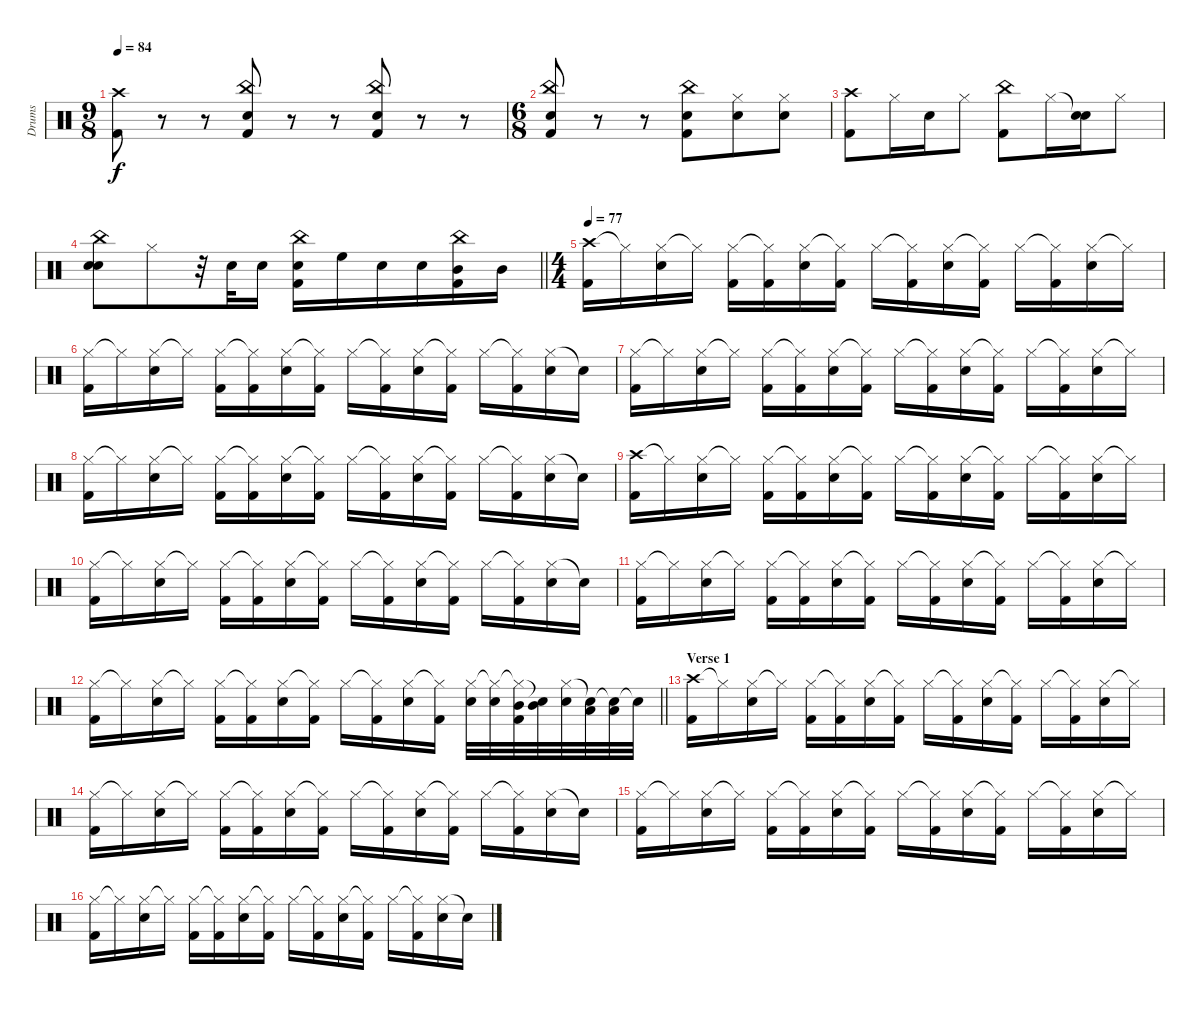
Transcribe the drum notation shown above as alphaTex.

\track ("Drums" "Drums") {instrument percussion}
\staff {score}
\articulation defaults
\ts (9 8)
\tempo 84
\clef neutral
\ks c
("Crash high (hit)" "Kick (hit) 2").8{dy f} r.8 r.8 ("China (hit)" "Electric Snare (hit)" "Kick (hit) 2").8 r.8 r.8 ("China (hit)" "Electric Snare (hit)" "Kick (hit) 2").8 r.8 r.8 |
\ts (6 8)
("China (hit)" "Electric Snare (hit)" "Kick (hit) 2").8 r.8 r.8 ("China (hit)" "Electric Snare (hit)" "Kick (hit) 2").8 ("Hi-Hat (closed)" "Electric Snare (hit)").8 ("Hi-Hat (closed)" "Electric Snare (hit)").8 |
("Crash high (hit)" "Kick (hit) 2").8 "Hi-Hat (closed)".16 "Electric Snare (hit)".16 "Hi-Hat (closed)".8 ("China (hit)" "Kick (hit) 2").8 "Hi-Hat (closed)".16 ("Snare (hit)"{t} "Electric Snare (hit)").16 "Hi-Hat (closed)".8 |
\barLineRight lightlight
("China (hit)" "Electric Snare (hit)" "Snare (hit)").8 "Hi-Hat (closed)".8 r.32 "Electric Snare (hit)".32 "Electric Snare (hit)".16 ("China (hit)" "Electric Snare (hit)" "Kick (hit) 2").16 "High Floor Tom (hit)".16 "Electric Snare (hit)".16 "Electric Snare (hit)".16 ("China (hit)" "Mid Tom (hit)" "Kick (hit) 2").16 "Mid Tom (hit)".16 |
\ts (4 4)
\tempo 77
("Crash high (hit)" "Kick (hit) 2").16 "Hi-Hat (closed)"{t}.16 ("Hi-Hat (closed)" "Electric Snare (hit)").16 "Hi-Hat (closed)"{t}.16 ("Hi-Hat (closed)" "Kick (hit) 2").16 ("Hi-Hat (closed)"{t} "Kick (hit) 2").16 ("Hi-Hat (closed)" "Electric Snare (hit)").16 ("Hi-Hat (closed)"{t} "Kick (hit) 2").16 "Hi-Hat (closed)".16 ("Hi-Hat (closed)"{t} "Kick (hit) 2").16 ("Hi-Hat (closed)" "Electric Snare (hit)").16 ("Hi-Hat (closed)"{t} "Kick (hit) 2").16 "Hi-Hat (closed)".16 ("Hi-Hat (closed)"{t} "Kick (hit) 2").16 ("Hi-Hat (closed)" "Electric Snare (hit)").16 "Hi-Hat (closed)"{t}.16 |
("Hi-Hat (closed)" "Kick (hit) 2").16 "Hi-Hat (closed)"{t}.16 ("Hi-Hat (closed)" "Electric Snare (hit)").16 "Hi-Hat (closed)"{t}.16 ("Hi-Hat (closed)" "Kick (hit) 2").16 ("Hi-Hat (closed)"{t} "Kick (hit) 2").16 ("Hi-Hat (closed)" "Electric Snare (hit)").16 ("Hi-Hat (closed)"{t} "Kick (hit) 2").16 "Hi-Hat (closed)".16 ("Hi-Hat (closed)"{t} "Kick (hit) 2").16 ("Hi-Hat (closed)" "Electric Snare (hit)").16 ("Hi-Hat (closed)"{t} "Kick (hit) 2").16 "Hi-Hat (closed)".16 ("Hi-Hat (closed)"{t} "Kick (hit) 2").16 ("Hi-Hat (closed)" "Electric Snare (hit)").16 "Snare (hit)"{t}.16 |
("Hi-Hat (closed)" "Kick (hit) 2").16 "Hi-Hat (closed)"{t}.16 ("Hi-Hat (closed)" "Electric Snare (hit)").16 "Hi-Hat (closed)"{t}.16 ("Hi-Hat (closed)" "Kick (hit) 2").16 ("Hi-Hat (closed)"{t} "Kick (hit) 2").16 ("Hi-Hat (closed)" "Electric Snare (hit)").16 ("Hi-Hat (closed)"{t} "Kick (hit) 2").16 "Hi-Hat (closed)".16 ("Hi-Hat (closed)"{t} "Kick (hit) 2").16 ("Hi-Hat (closed)" "Electric Snare (hit)").16 ("Hi-Hat (closed)"{t} "Kick (hit) 2").16 "Hi-Hat (closed)".16 ("Hi-Hat (closed)"{t} "Kick (hit) 2").16 ("Hi-Hat (closed)" "Electric Snare (hit)").16 "Hi-Hat (closed)"{t}.16 |
("Hi-Hat (closed)" "Kick (hit) 2").16 "Hi-Hat (closed)"{t}.16 ("Hi-Hat (closed)" "Electric Snare (hit)").16 "Hi-Hat (closed)"{t}.16 ("Hi-Hat (closed)" "Kick (hit) 2").16 ("Hi-Hat (closed)"{t} "Kick (hit) 2").16 ("Hi-Hat (closed)" "Electric Snare (hit)").16 ("Hi-Hat (closed)"{t} "Kick (hit) 2").16 "Hi-Hat (closed)".16 ("Hi-Hat (closed)"{t} "Kick (hit) 2").16 ("Hi-Hat (closed)" "Electric Snare (hit)").16 ("Hi-Hat (closed)"{t} "Kick (hit) 2").16 "Hi-Hat (closed)".16 ("Hi-Hat (closed)"{t} "Kick (hit) 2").16 ("Hi-Hat (closed)" "Electric Snare (hit)").16 "Snare (hit)"{t}.16 |
("Crash high (hit)" "Kick (hit) 2").16 "Hi-Hat (closed)"{t}.16 ("Hi-Hat (closed)" "Electric Snare (hit)").16 "Hi-Hat (closed)"{t}.16 ("Hi-Hat (closed)" "Kick (hit) 2").16 ("Hi-Hat (closed)"{t} "Kick (hit) 2").16 ("Hi-Hat (closed)" "Electric Snare (hit)").16 ("Hi-Hat (closed)"{t} "Kick (hit) 2").16 "Hi-Hat (closed)".16 ("Hi-Hat (closed)"{t} "Kick (hit) 2").16 ("Hi-Hat (closed)" "Electric Snare (hit)").16 ("Hi-Hat (closed)"{t} "Kick (hit) 2").16 "Hi-Hat (closed)".16 ("Hi-Hat (closed)"{t} "Kick (hit) 2").16 ("Hi-Hat (closed)" "Electric Snare (hit)").16 "Hi-Hat (closed)"{t}.16 |
("Hi-Hat (closed)" "Kick (hit) 2").16 "Hi-Hat (closed)"{t}.16 ("Hi-Hat (closed)" "Electric Snare (hit)").16 "Hi-Hat (closed)"{t}.16 ("Hi-Hat (closed)" "Kick (hit) 2").16 ("Hi-Hat (closed)"{t} "Kick (hit) 2").16 ("Hi-Hat (closed)" "Electric Snare (hit)").16 ("Hi-Hat (closed)"{t} "Kick (hit) 2").16 "Hi-Hat (closed)".16 ("Hi-Hat (closed)"{t} "Kick (hit) 2").16 ("Hi-Hat (closed)" "Electric Snare (hit)").16 ("Hi-Hat (closed)"{t} "Kick (hit) 2").16 "Hi-Hat (closed)".16 ("Hi-Hat (closed)"{t} "Kick (hit) 2").16 ("Hi-Hat (closed)" "Electric Snare (hit)").16 "Snare (hit)"{t}.16 |
("Hi-Hat (closed)" "Kick (hit) 2").16 "Hi-Hat (closed)"{t}.16 ("Hi-Hat (closed)" "Electric Snare (hit)").16 "Hi-Hat (closed)"{t}.16 ("Hi-Hat (closed)" "Kick (hit) 2").16 ("Hi-Hat (closed)"{t} "Kick (hit) 2").16 ("Hi-Hat (closed)" "Electric Snare (hit)").16 ("Hi-Hat (closed)"{t} "Kick (hit) 2").16 "Hi-Hat (closed)".16 ("Hi-Hat (closed)"{t} "Kick (hit) 2").16 ("Hi-Hat (closed)" "Electric Snare (hit)").16 ("Hi-Hat (closed)"{t} "Kick (hit) 2").16 "Hi-Hat (closed)".16 ("Hi-Hat (closed)"{t} "Kick (hit) 2").16 ("Hi-Hat (closed)" "Electric Snare (hit)").16 "Hi-Hat (closed)"{t}.16 |
\barLineRight lightlight
("Hi-Hat (closed)" "Kick (hit) 2").16 "Hi-Hat (closed)"{t}.16 ("Hi-Hat (closed)" "Electric Snare (hit)").16 "Hi-Hat (closed)"{t}.16 ("Hi-Hat (closed)" "Kick (hit) 2").16 ("Hi-Hat (closed)"{t} "Kick (hit) 2").16 ("Hi-Hat (closed)" "Electric Snare (hit)").16 ("Hi-Hat (closed)"{t} "Kick (hit) 2").16 "Hi-Hat (closed)".16 ("Hi-Hat (closed)"{t} "Kick (hit) 2").16 ("Hi-Hat (closed)" "Electric Snare (hit)").16 ("Hi-Hat (closed)"{t} "Kick (hit) 2").16 ("Hi-Hat (closed)" "Electric Snare (hit)").32 ("Hi-Hat (closed)"{t} "Electric Snare (hit)").32 ("Hi-Hat (closed)"{t} "Mid Tom (hit)" "Kick (hit) 2").32 ("Snare (hit)"{t} "Mid Tom (hit)").32 ("Hi-Hat (closed)" "Electric Snare (hit)").32 ("Snare (hit)"{t} "Low Tom (hit)").32 ("Snare (hit)"{t} "Low Tom (hit)").32 "Snare (hit)"{t}.32 |
\section ("" "Verse 1")
("Crash high (hit)" "Kick (hit) 2").16 "Hi-Hat (closed)"{t}.16 ("Hi-Hat (closed)" "Electric Snare (hit)").16 "Hi-Hat (closed)"{t}.16 ("Hi-Hat (closed)" "Kick (hit) 2").16 ("Hi-Hat (closed)"{t} "Kick (hit) 2").16 ("Hi-Hat (closed)" "Electric Snare (hit)").16 ("Hi-Hat (closed)"{t} "Kick (hit) 2").16 "Hi-Hat (closed)".16 ("Hi-Hat (closed)"{t} "Kick (hit) 2").16 ("Hi-Hat (closed)" "Electric Snare (hit)").16 ("Hi-Hat (closed)"{t} "Kick (hit) 2").16 "Hi-Hat (closed)".16 ("Hi-Hat (closed)"{t} "Kick (hit) 2").16 ("Hi-Hat (closed)" "Electric Snare (hit)").16 "Hi-Hat (closed)"{t}.16 |
("Hi-Hat (closed)" "Kick (hit) 2").16 "Hi-Hat (closed)"{t}.16 ("Hi-Hat (closed)" "Electric Snare (hit)").16 "Hi-Hat (closed)"{t}.16 ("Hi-Hat (closed)" "Kick (hit) 2").16 ("Hi-Hat (closed)"{t} "Kick (hit) 2").16 ("Hi-Hat (closed)" "Electric Snare (hit)").16 ("Hi-Hat (closed)"{t} "Kick (hit) 2").16 "Hi-Hat (closed)".16 ("Hi-Hat (closed)"{t} "Kick (hit) 2").16 ("Hi-Hat (closed)" "Electric Snare (hit)").16 ("Hi-Hat (closed)"{t} "Kick (hit) 2").16 "Hi-Hat (closed)".16 ("Hi-Hat (closed)"{t} "Kick (hit) 2").16 ("Hi-Hat (closed)" "Electric Snare (hit)").16 "Snare (hit)"{t}.16 |
("Hi-Hat (closed)" "Kick (hit) 2").16 "Hi-Hat (closed)"{t}.16 ("Hi-Hat (closed)" "Electric Snare (hit)").16 "Hi-Hat (closed)"{t}.16 ("Hi-Hat (closed)" "Kick (hit) 2").16 ("Hi-Hat (closed)"{t} "Kick (hit) 2").16 ("Hi-Hat (closed)" "Electric Snare (hit)").16 ("Hi-Hat (closed)"{t} "Kick (hit) 2").16 "Hi-Hat (closed)".16 ("Hi-Hat (closed)"{t} "Kick (hit) 2").16 ("Hi-Hat (closed)" "Electric Snare (hit)").16 ("Hi-Hat (closed)"{t} "Kick (hit) 2").16 "Hi-Hat (closed)".16 ("Hi-Hat (closed)"{t} "Kick (hit) 2").16 ("Hi-Hat (closed)" "Electric Snare (hit)").16 "Hi-Hat (closed)"{t}.16 |
("Hi-Hat (closed)" "Kick (hit) 2").16 "Hi-Hat (closed)"{t}.16 ("Hi-Hat (closed)" "Electric Snare (hit)").16 "Hi-Hat (closed)"{t}.16 ("Hi-Hat (closed)" "Kick (hit) 2").16 ("Hi-Hat (closed)"{t} "Kick (hit) 2").16 ("Hi-Hat (closed)" "Electric Snare (hit)").16 ("Hi-Hat (closed)"{t} "Kick (hit) 2").16 "Hi-Hat (closed)".16 ("Hi-Hat (closed)"{t} "Kick (hit) 2").16 ("Hi-Hat (closed)" "Electric Snare (hit)").16 ("Hi-Hat (closed)"{t} "Kick (hit) 2").16 "Hi-Hat (closed)".16 ("Hi-Hat (closed)"{t} "Kick (hit) 2").16 ("Hi-Hat (closed)" "Electric Snare (hit)").16 "Snare (hit)"{t}.16
